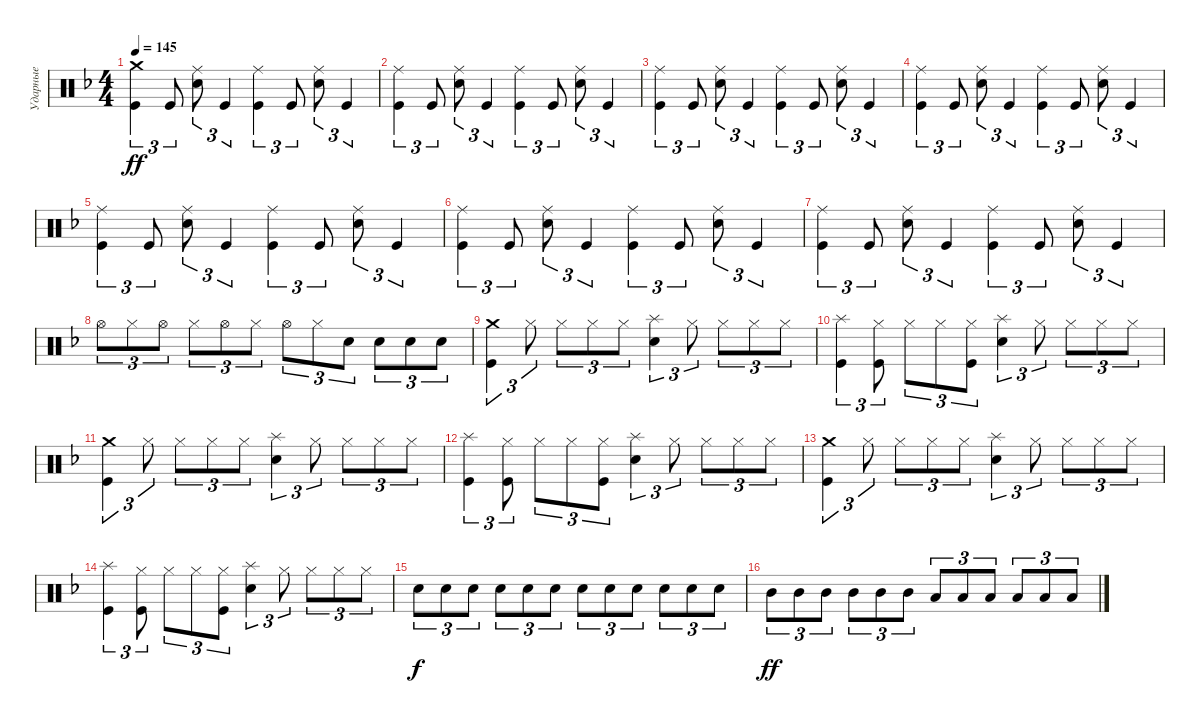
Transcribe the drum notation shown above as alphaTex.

\track ("Ударные" "Ударные") {instrument percussion}
\staff {score}
\articulation defaults
\ts (4 4)
\tempo 145
\clef neutral
\ks dminor
("Crash medium (hit)" "Kick (hit)").4{tu (3 2) dy ff} "Kick (hit)".8{tu (3 2)} ("Ride (middle)" "Electric Snare (hit)").8{tu (3 2)} "Kick (hit)".4{tu (3 2)} ("Ride (middle)" "Kick (hit)").4{tu (3 2)} "Kick (hit)".8{tu (3 2)} ("Ride (middle)" "Electric Snare (hit)").8{tu (3 2)} "Kick (hit)".4{tu (3 2)} |
("Ride (middle)" "Kick (hit)").4{tu (3 2)} "Kick (hit)".8{tu (3 2)} ("Ride (middle)" "Electric Snare (hit)").8{tu (3 2)} "Kick (hit)".4{tu (3 2)} ("Ride (middle)" "Kick (hit)").4{tu (3 2)} "Kick (hit)".8{tu (3 2)} ("Ride (middle)" "Electric Snare (hit)").8{tu (3 2)} "Kick (hit)".4{tu (3 2)} |
("Ride (middle)" "Kick (hit)").4{tu (3 2)} "Kick (hit)".8{tu (3 2)} ("Ride (middle)" "Electric Snare (hit)").8{tu (3 2)} "Kick (hit)".4{tu (3 2)} ("Ride (middle)" "Kick (hit)").4{tu (3 2)} "Kick (hit)".8{tu (3 2)} ("Ride (middle)" "Electric Snare (hit)").8{tu (3 2)} "Kick (hit)".4{tu (3 2)} |
("Ride (middle)" "Kick (hit)").4{tu (3 2)} "Kick (hit)".8{tu (3 2)} ("Ride (middle)" "Electric Snare (hit)").8{tu (3 2)} "Kick (hit)".4{tu (3 2)} ("Ride (middle)" "Kick (hit)").4{tu (3 2)} "Kick (hit)".8{tu (3 2)} ("Ride (middle)" "Electric Snare (hit)").8{tu (3 2)} "Kick (hit)".4{tu (3 2)} |
("Ride (middle)" "Kick (hit)").4{tu (3 2)} "Kick (hit)".8{tu (3 2)} ("Ride (middle)" "Electric Snare (hit)").8{tu (3 2)} "Kick (hit)".4{tu (3 2)} ("Ride (middle)" "Kick (hit)").4{tu (3 2)} "Kick (hit)".8{tu (3 2)} ("Ride (middle)" "Electric Snare (hit)").8{tu (3 2)} "Kick (hit)".4{tu (3 2)} |
("Ride (middle)" "Kick (hit)").4{tu (3 2)} "Kick (hit)".8{tu (3 2)} ("Ride (middle)" "Electric Snare (hit)").8{tu (3 2)} "Kick (hit)".4{tu (3 2)} ("Ride (middle)" "Kick (hit)").4{tu (3 2)} "Kick (hit)".8{tu (3 2)} ("Ride (middle)" "Electric Snare (hit)").8{tu (3 2)} "Kick (hit)".4{tu (3 2)} |
("Ride (middle)" "Kick (hit)").4{tu (3 2)} "Kick (hit)".8{tu (3 2)} ("Ride (middle)" "Electric Snare (hit)").8{tu (3 2)} "Kick (hit)".4{tu (3 2)} ("Ride (middle)" "Kick (hit)").4{tu (3 2)} "Kick (hit)".8{tu (3 2)} ("Ride (middle)" "Electric Snare (hit)").8{tu (3 2)} "Kick (hit)".4{tu (3 2)} |
"Hi-Hat (open)".8{tu (3 2)} "Hi-Hat (closed)".8{tu (3 2)} "Hi-Hat (open)".8{tu (3 2)} "Hi-Hat (closed)".8{tu (3 2)} "Hi-Hat (open)".8{tu (3 2)} "Hi-Hat (closed)".8{tu (3 2)} "Hi-Hat (open)".8{tu (3 2)} "Hi-Hat (closed)".8{tu (3 2)} "Electric Snare (hit)".8{tu (3 2)} "Electric Snare (hit)".8{tu (3 2)} "Electric Snare (hit)".8{tu (3 2)} "Electric Snare (hit)".8{tu (3 2)} |
("Crash medium (hit)" "Kick (hit)").4{tu (3 2)} "Hi-Hat (closed)".8{tu (3 2)} "Hi-Hat (closed)".8{tu (3 2)} "Hi-Hat (closed)".8{tu (3 2)} "Hi-Hat (closed)".8{tu (3 2)} ("Splash (hit)" "Electric Snare (hit)").4{tu (3 2)} "Hi-Hat (closed)".8{tu (3 2)} "Hi-Hat (closed)".8{tu (3 2)} "Hi-Hat (closed)".8{tu (3 2)} "Hi-Hat (closed)".8{tu (3 2)} |
("Splash (hit)" "Kick (hit)").4{tu (3 2)} ("Kick (hit)" "Hi-Hat (closed)").8{tu (3 2)} "Hi-Hat (closed)".8{tu (3 2)} "Hi-Hat (closed)".8{tu (3 2)} ("Kick (hit)" "Hi-Hat (closed)").8{tu (3 2)} ("Splash (hit)" "Electric Snare (hit)").4{tu (3 2)} "Hi-Hat (closed)".8{tu (3 2)} "Hi-Hat (closed)".8{tu (3 2)} "Hi-Hat (closed)".8{tu (3 2)} "Hi-Hat (closed)".8{tu (3 2)} |
("Crash medium (hit)" "Kick (hit)").4{tu (3 2)} "Hi-Hat (closed)".8{tu (3 2)} "Hi-Hat (closed)".8{tu (3 2)} "Hi-Hat (closed)".8{tu (3 2)} "Hi-Hat (closed)".8{tu (3 2)} ("Splash (hit)" "Electric Snare (hit)").4{tu (3 2)} "Hi-Hat (closed)".8{tu (3 2)} "Hi-Hat (closed)".8{tu (3 2)} "Hi-Hat (closed)".8{tu (3 2)} "Hi-Hat (closed)".8{tu (3 2)} |
("Splash (hit)" "Kick (hit)").4{tu (3 2)} ("Kick (hit)" "Hi-Hat (closed)").8{tu (3 2)} "Hi-Hat (closed)".8{tu (3 2)} "Hi-Hat (closed)".8{tu (3 2)} ("Kick (hit)" "Hi-Hat (closed)").8{tu (3 2)} ("Splash (hit)" "Electric Snare (hit)").4{tu (3 2)} "Hi-Hat (closed)".8{tu (3 2)} "Hi-Hat (closed)".8{tu (3 2)} "Hi-Hat (closed)".8{tu (3 2)} "Hi-Hat (closed)".8{tu (3 2)} |
("Crash medium (hit)" "Kick (hit)").4{tu (3 2)} "Hi-Hat (closed)".8{tu (3 2)} "Hi-Hat (closed)".8{tu (3 2)} "Hi-Hat (closed)".8{tu (3 2)} "Hi-Hat (closed)".8{tu (3 2)} ("Splash (hit)" "Electric Snare (hit)").4{tu (3 2)} "Hi-Hat (closed)".8{tu (3 2)} "Hi-Hat (closed)".8{tu (3 2)} "Hi-Hat (closed)".8{tu (3 2)} "Hi-Hat (closed)".8{tu (3 2)} |
("Splash (hit)" "Kick (hit)").4{tu (3 2)} ("Kick (hit)" "Hi-Hat (closed)").8{tu (3 2)} "Hi-Hat (closed)".8{tu (3 2)} "Hi-Hat (closed)".8{tu (3 2)} ("Kick (hit)" "Hi-Hat (closed)").8{tu (3 2)} ("Splash (hit)" "Electric Snare (hit)").4{tu (3 2)} "Hi-Hat (closed)".8{tu (3 2)} "Hi-Hat (closed)".8{tu (3 2)} "Hi-Hat (closed)".8{tu (3 2)} "Hi-Hat (closed)".8{tu (3 2)} |
"Electric Snare (hit)".8{tu (3 2) dy f} "Electric Snare (hit)".8{tu (3 2)} "Electric Snare (hit)".8{tu (3 2)} "Electric Snare (hit)".8{tu (3 2)} "Electric Snare (hit)".8{tu (3 2)} "Electric Snare (hit)".8{tu (3 2)} "Electric Snare (hit)".8{tu (3 2)} "Electric Snare (hit)".8{tu (3 2)} "Electric Snare (hit)".8{tu (3 2)} "Electric Snare (hit)".8{tu (3 2)} "Electric Snare (hit)".8{tu (3 2)} "Electric Snare (hit)".8{tu (3 2)} |
"Mid Tom (hit)".8{tu (3 2) dy ff} "Mid Tom (hit)".8{tu (3 2)} "Mid Tom (hit)".8{tu (3 2)} "Mid Tom (hit)".8{tu (3 2)} "Mid Tom (hit)".8{tu (3 2)} "Mid Tom (hit)".8{tu (3 2)} "Low Tom (hit)".8{tu (3 2)} "Low Tom (hit)".8{tu (3 2)} "Low Tom (hit)".8{tu (3 2)} "Low Tom (hit)".8{tu (3 2)} "Low Tom (hit)".8{tu (3 2)} "Low Tom (hit)".8{tu (3 2)}
